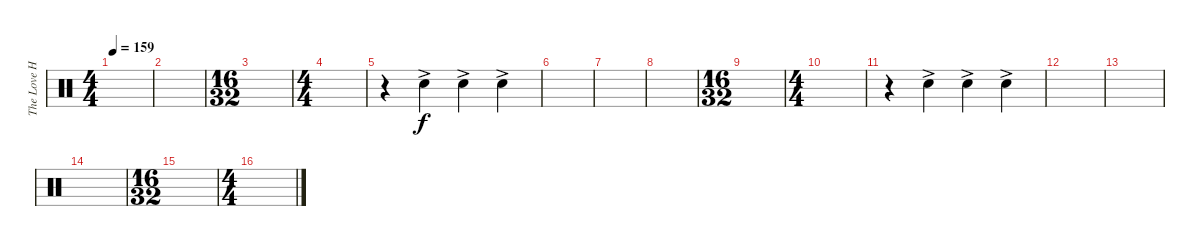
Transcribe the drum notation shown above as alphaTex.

\track ("The Love Haters (Hand Clap)(Drums)" "The Love H") {instrument percussion}
\staff {score}
\articulation defaults
\ts (4 4)
\tempo 159
\clef neutral
\ks c
|
|
\ts (16 32)
|
\ts (4 4)
|
r.4 "Hand Clap (hit)"{ac}.4 "Hand Clap (hit)"{ac}.4 "Hand Clap (hit)"{ac}.4 |
|
|
|
\ts (16 32)
|
\ts (4 4)
|
r.4 "Hand Clap (hit)"{ac}.4 "Hand Clap (hit)"{ac}.4 "Hand Clap (hit)"{ac}.4 |
|
|
|
\ts (16 32)
|
\ts (4 4)
